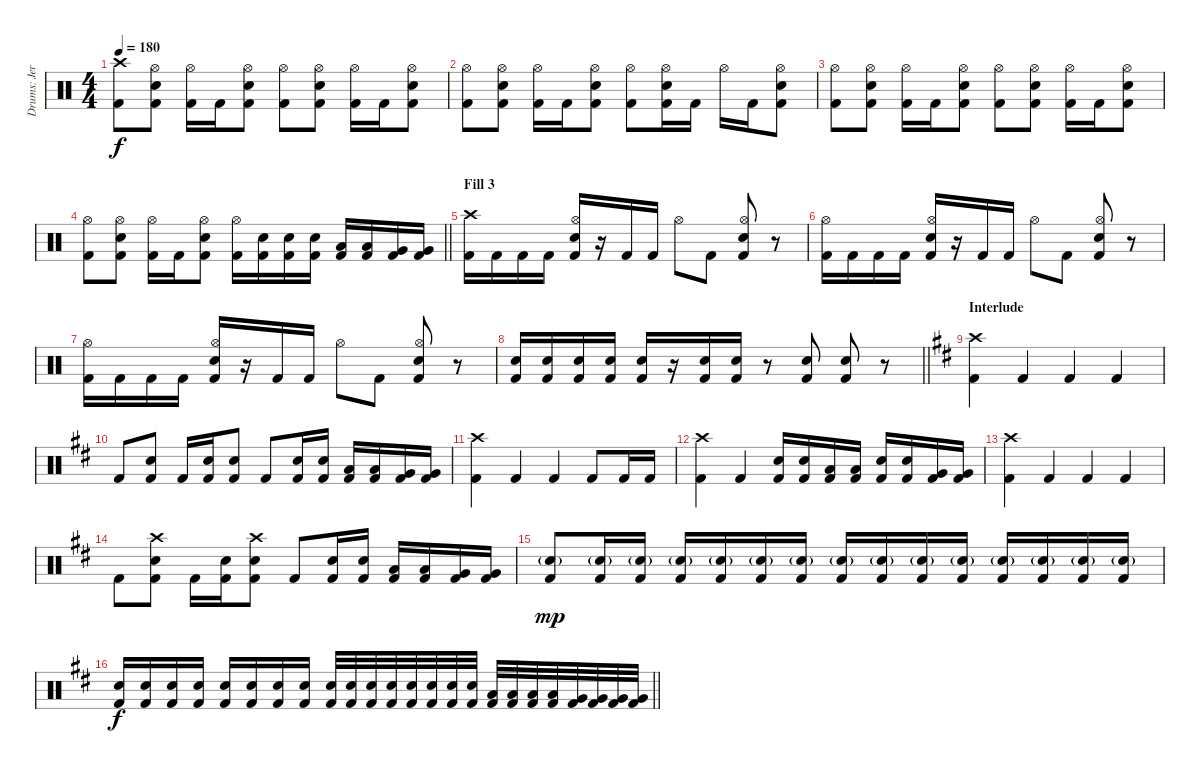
\track ("Drums: Jere Luokkamäki" "Drums: Jer") {instrument percussion}
\staff {score}
\articulation defaults
\ts (4 4)
\tempo 180
\clef neutral
\ks aminor
("Crash high (hit)" "Kick (hit) 2").8{dy f} ("Hi-Hat (open)" "Electric Snare (hit)" "Kick (hit) 2").8 ("Hi-Hat (open)" "Kick (hit) 2").16 "Kick (hit) 2".16 ("Hi-Hat (open)" "Electric Snare (hit)" "Kick (hit) 2").8 ("Hi-Hat (open)" "Kick (hit) 2").8 ("Hi-Hat (open)" "Electric Snare (hit)" "Kick (hit) 2").8 ("Hi-Hat (open)" "Kick (hit) 2").16 "Kick (hit) 2".16 ("Hi-Hat (open)" "Electric Snare (hit)" "Kick (hit) 2").8 |
("Hi-Hat (open)" "Kick (hit) 2").8 ("Hi-Hat (open)" "Electric Snare (hit)" "Kick (hit) 2").8 ("Hi-Hat (open)" "Kick (hit) 2").16 "Kick (hit) 2".16 ("Hi-Hat (open)" "Electric Snare (hit)" "Kick (hit) 2").8 ("Hi-Hat (open)" "Kick (hit) 2").8 ("Hi-Hat (open)" "Electric Snare (hit)" "Kick (hit) 2").16 "Kick (hit) 2".16 "Hi-Hat (open)".16 "Kick (hit) 2".16 ("Hi-Hat (open)" "Electric Snare (hit)" "Kick (hit) 2").8 |
("Hi-Hat (open)" "Kick (hit) 2").8 ("Hi-Hat (open)" "Electric Snare (hit)" "Kick (hit) 2").8 ("Hi-Hat (open)" "Kick (hit) 2").16 "Kick (hit) 2".16 ("Hi-Hat (open)" "Electric Snare (hit)" "Kick (hit) 2").8 ("Hi-Hat (open)" "Kick (hit) 2").8 ("Hi-Hat (open)" "Electric Snare (hit)" "Kick (hit) 2").8 ("Hi-Hat (open)" "Kick (hit) 2").16 "Kick (hit) 2".16 ("Hi-Hat (open)" "Electric Snare (hit)" "Kick (hit) 2").8 |
\barLineRight lightlight
("Hi-Hat (open)" "Kick (hit) 2").8 ("Hi-Hat (open)" "Electric Snare (hit)" "Kick (hit) 2").8 ("Hi-Hat (open)" "Kick (hit) 2").16 "Kick (hit) 2".16 ("Hi-Hat (open)" "Electric Snare (hit)" "Kick (hit) 2").8 ("Hi-Hat (open)" "Kick (hit) 2").16 ("Electric Snare (hit)" "Kick (hit) 2").16 ("Electric Snare (hit)" "Kick (hit) 2").16 ("Electric Snare (hit)" "Kick (hit) 2").16 ("Low Tom (hit)" "Kick (hit) 2").16 ("Low Tom (hit)" "Kick (hit) 2").16 ("Very Low Tom (hit)" "Kick (hit) 2").16 ("Very Low Tom (hit)" "Kick (hit) 2").16 |
\section ("" "Fill 3")
("Crash high (hit)" "Kick (hit) 2").16 "Kick (hit) 2".16 "Kick (hit) 2".16 "Kick (hit) 2".16 ("Hi-Hat (open)" "Electric Snare (hit)" "Kick (hit) 2").16 r.16 "Kick (hit) 2".16 "Kick (hit) 2".16 "Hi-Hat (open)".8 "Kick (hit) 2".8 ("Hi-Hat (open)" "Electric Snare (hit)" "Kick (hit) 2").8 r.8 |
("Hi-Hat (open)" "Kick (hit) 2").16 "Kick (hit) 2".16 "Kick (hit) 2".16 "Kick (hit) 2".16 ("Hi-Hat (open)" "Electric Snare (hit)" "Kick (hit) 2").16 r.16 "Kick (hit) 2".16 "Kick (hit) 2".16 "Hi-Hat (open)".8 "Kick (hit) 2".8 ("Hi-Hat (open)" "Electric Snare (hit)" "Kick (hit) 2").8 r.8 |
("Hi-Hat (open)" "Kick (hit) 2").16 "Kick (hit) 2".16 "Kick (hit) 2".16 "Kick (hit) 2".16 ("Hi-Hat (open)" "Electric Snare (hit)" "Kick (hit) 2").16 r.16 "Kick (hit) 2".16 "Kick (hit) 2".16 "Hi-Hat (open)".8 "Kick (hit) 2".8 ("Hi-Hat (open)" "Electric Snare (hit)" "Kick (hit) 2").8 r.8 |
\barLineRight lightlight
("Electric Snare (hit)" "Kick (hit) 2").16 ("Electric Snare (hit)" "Kick (hit) 2").16 ("Electric Snare (hit)" "Kick (hit) 2").16 ("Electric Snare (hit)" "Kick (hit) 2").16 ("Electric Snare (hit)" "Kick (hit) 2").16 r.16 ("Electric Snare (hit)" "Kick (hit) 2").16 ("Electric Snare (hit)" "Kick (hit) 2").16 r.8 ("Electric Snare (hit)" "Kick (hit) 2").8 ("Electric Snare (hit)" "Kick (hit) 2").8 r.8 |
\section ("" "Interlude")
\ks bminor
("Crash high (hit)" "Kick (hit) 2").4 "Kick (hit) 2".4 "Kick (hit) 2".4 "Kick (hit) 2".4 |
"Kick (hit) 2".8 ("Electric Snare (hit)" "Kick (hit) 2").8 "Kick (hit) 2".16 ("Electric Snare (hit)" "Kick (hit) 2").16 ("Electric Snare (hit)" "Kick (hit) 2").8 "Kick (hit) 2".8 ("Electric Snare (hit)" "Kick (hit) 2").16 ("Electric Snare (hit)" "Kick (hit) 2").16 ("Low Tom (hit)" "Kick (hit) 2").16 ("Low Tom (hit)" "Kick (hit) 2").16 ("Very Low Tom (hit)" "Kick (hit) 2").16 ("Very Low Tom (hit)" "Kick (hit) 2").16 |
("Crash high (hit)" "Kick (hit) 2").4 "Kick (hit) 2".4 "Kick (hit) 2".4 "Kick (hit) 2".8 "Kick (hit) 2".16 "Kick (hit) 2".16 |
("Crash high (hit)" "Kick (hit) 2").4 "Kick (hit) 2".4 ("Electric Snare (hit)" "Kick (hit) 2").16 ("Electric Snare (hit)" "Kick (hit) 2").16 ("Low Tom (hit)" "Kick (hit) 2").16 ("Low Tom (hit)" "Kick (hit) 2").16 ("Electric Snare (hit)" "Kick (hit) 2").16 ("Electric Snare (hit)" "Kick (hit) 2").16 ("Very Low Tom (hit)" "Kick (hit) 2").16 ("Very Low Tom (hit)" "Kick (hit) 2").16 |
("Crash high (hit)" "Kick (hit) 2").4 "Kick (hit) 2".4 "Kick (hit) 2".4 "Kick (hit) 2".4 |
"Kick (hit) 2".8 ("Crash high (hit)" "Electric Snare (hit)" "Kick (hit) 2").8 "Kick (hit) 2".16 ("Electric Snare (hit)" "Kick (hit) 2").16 ("Crash high (hit)" "Electric Snare (hit)" "Kick (hit) 2").8 "Kick (hit) 2".8 ("Electric Snare (hit)" "Kick (hit) 2").16 ("Electric Snare (hit)" "Kick (hit) 2").16 ("Low Tom (hit)" "Kick (hit) 2").16 ("Low Tom (hit)" "Kick (hit) 2").16 ("Very Low Tom (hit)" "Kick (hit) 2").16 ("Very Low Tom (hit)" "Kick (hit) 2").16 |
("Electric Snare (hit)"{g} "Kick (hit) 2").8{dy mp} ("Electric Snare (hit)"{g} "Kick (hit) 2").16 ("Electric Snare (hit)"{g} "Kick (hit) 2").16 ("Electric Snare (hit)"{g} "Kick (hit) 2").16 ("Electric Snare (hit)"{g} "Kick (hit) 2").16 ("Electric Snare (hit)"{g} "Kick (hit) 2").16 ("Electric Snare (hit)"{g} "Kick (hit) 2").16 ("Electric Snare (hit)"{g} "Kick (hit) 2").16 ("Electric Snare (hit)"{g} "Kick (hit) 2").16 ("Electric Snare (hit)"{g} "Kick (hit) 2").16 ("Electric Snare (hit)"{g} "Kick (hit) 2").16 ("Electric Snare (hit)"{g} "Kick (hit) 2").16 ("Electric Snare (hit)"{g} "Kick (hit) 2").16 ("Electric Snare (hit)"{g} "Kick (hit) 2").16 ("Electric Snare (hit)"{g} "Kick (hit) 2").16 |
\barLineRight lightlight
("Electric Snare (hit)" "Kick (hit) 2").16{dy f} ("Electric Snare (hit)" "Kick (hit) 2").16 ("Electric Snare (hit)" "Kick (hit) 2").16 ("Electric Snare (hit)" "Kick (hit) 2").16 ("Electric Snare (hit)" "Kick (hit) 2").16 ("Electric Snare (hit)" "Kick (hit) 2").16 ("Electric Snare (hit)" "Kick (hit) 2").16 ("Electric Snare (hit)" "Kick (hit) 2").16 ("Electric Snare (hit)" "Kick (hit) 2").32 ("Electric Snare (hit)" "Kick (hit) 2").32 ("Electric Snare (hit)" "Kick (hit) 2").32 ("Electric Snare (hit)" "Kick (hit) 2").32 ("Electric Snare (hit)" "Kick (hit) 2").32 ("Electric Snare (hit)" "Kick (hit) 2").32 ("Electric Snare (hit)" "Kick (hit) 2").32 ("Electric Snare (hit)" "Kick (hit) 2").32 ("Low Tom (hit)" "Kick (hit) 2").32 ("Low Tom (hit)" "Kick (hit) 2").32 ("Low Tom (hit)" "Kick (hit) 2").32 ("Low Tom (hit)" "Kick (hit) 2").32 ("Very Low Tom (hit)" "Kick (hit) 2").32 ("Very Low Tom (hit)" "Kick (hit) 2").32 ("Very Low Tom (hit)" "Kick (hit) 2").32 ("Very Low Tom (hit)" "Kick (hit) 2").32
